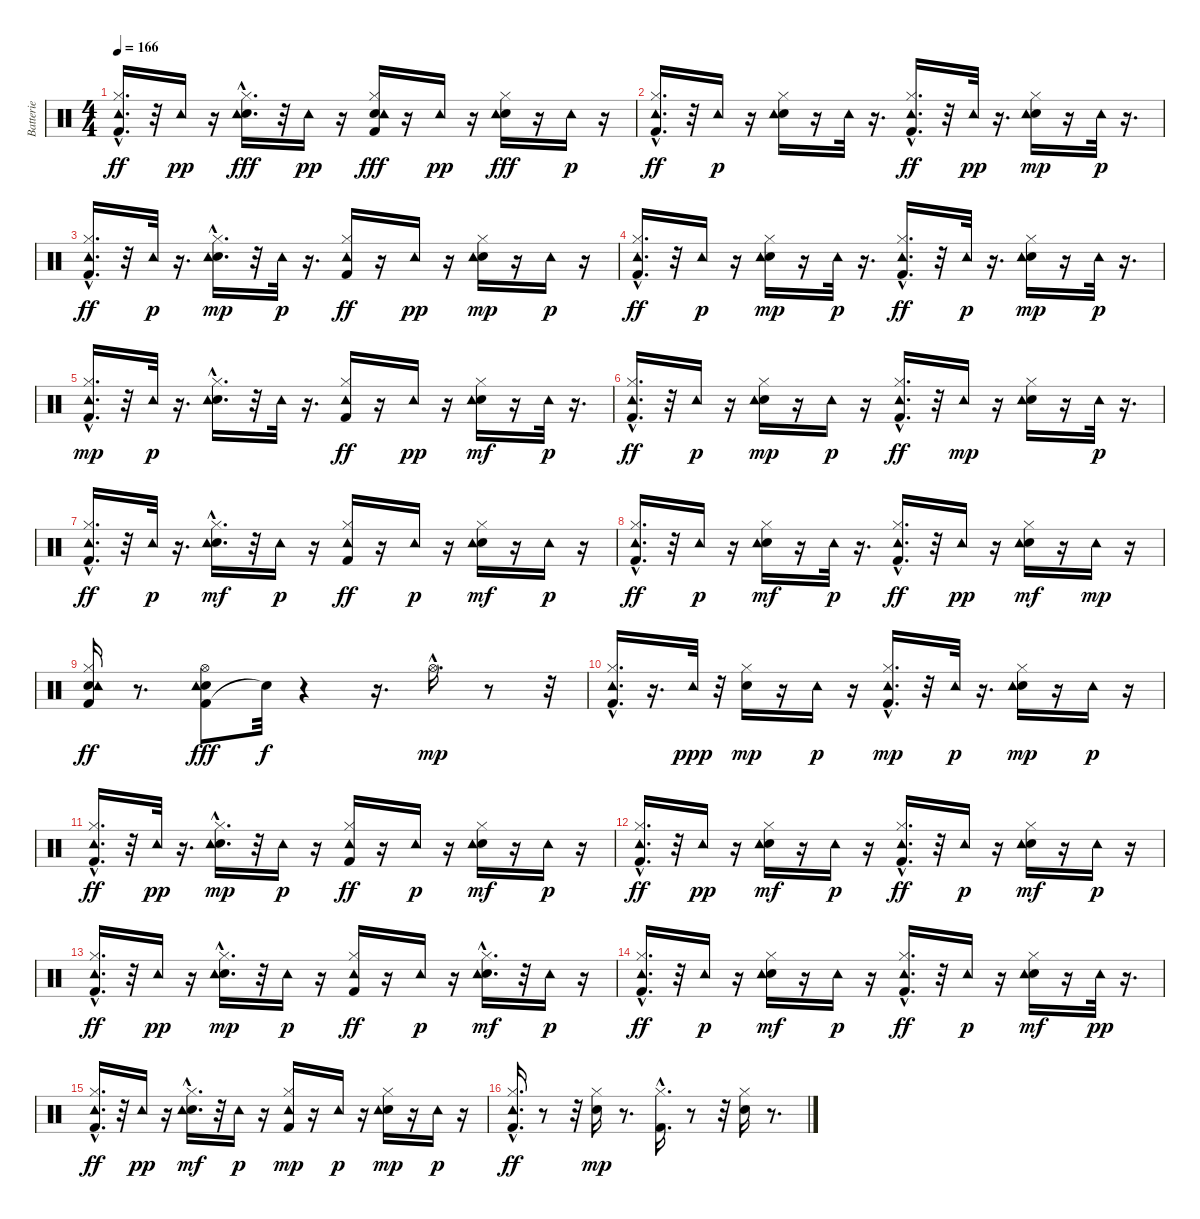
\track ("Batterie" "Batterie") {instrument percussion}
\staff {score}
\articulation defaults
\ts (4 4)
\tempo 166
\clef neutral
\ks c
("Kick (hit) 2"{hac} "Hi-Hat (closed)" "Tambourine (hit)").16{d dy ff} r.32 "Tambourine (hit)".16{dy pp} r.16 ("Electric Snare (hit)" "Hi-Hat (closed)"{hac} "Tambourine (hit)").16{d dy fff} r.32 "Tambourine (hit)".16{dy pp} r.16 ("Kick (hit) 2" "Electric Snare (hit)" "Hi-Hat (closed)" "Tambourine (hit)").16{dy fff} r.16 "Tambourine (hit)".16{dy pp} r.16 ("Electric Snare (hit)" "Hi-Hat (closed)" "Tambourine (hit)").16{dy fff} r.16 "Tambourine (hit)".16{dy p} r.16 |
("Kick (hit) 2"{hac} "Hi-Hat (closed)"{hac} "Tambourine (hit)").16{d dy ff} r.32 "Tambourine (hit)".16{dy p} r.16 ("Electric Snare (hit)" "Hi-Hat (closed)" "Tambourine (hit)").16 r.16 "Tambourine (hit)".32 r.16{d} ("Kick (hit) 2"{hac} "Hi-Hat (closed)" "Tambourine (hit)").16{d dy ff} r.32 "Tambourine (hit)".32{dy pp} r.16{d} ("Electric Snare (hit)" "Hi-Hat (closed)" "Tambourine (hit)").16{dy mp} r.16 "Tambourine (hit)".32{dy p} r.16{d} |
("Kick (hit) 2"{hac} "Hi-Hat (closed)" "Tambourine (hit)").16{d dy ff} r.32 "Tambourine (hit)".32{dy p} r.16{d} ("Electric Snare (hit)" "Hi-Hat (closed)"{hac} "Tambourine (hit)").16{d dy mp} r.32 "Tambourine (hit)".32{dy p} r.16{d} ("Kick (hit) 2" "Hi-Hat (closed)" "Tambourine (hit)").16{dy ff} r.16 "Tambourine (hit)".16{dy pp} r.16 ("Electric Snare (hit)" "Hi-Hat (closed)" "Tambourine (hit)").16{dy mp} r.16 "Tambourine (hit)".16{dy p} r.16 |
("Kick (hit) 2"{hac} "Hi-Hat (closed)"{hac} "Tambourine (hit)").16{d dy ff} r.32 "Tambourine (hit)".16{dy p} r.16 ("Electric Snare (hit)" "Hi-Hat (closed)" "Tambourine (hit)").16{dy mp} r.16 "Tambourine (hit)".32{dy p} r.16{d} ("Kick (hit) 2"{hac} "Hi-Hat (closed)" "Tambourine (hit)").16{d dy ff} r.32 "Tambourine (hit)".32{dy p} r.16{d} ("Electric Snare (hit)" "Hi-Hat (closed)" "Tambourine (hit)").16{dy mp} r.16 "Tambourine (hit)".32{dy p} r.16{d} |
("Kick (hit) 2"{hac} "Hi-Hat (closed)" "Tambourine (hit)").16{d dy mp} r.32 "Tambourine (hit)".32{dy p} r.16{d} ("Electric Snare (hit)" "Hi-Hat (closed)"{hac} "Tambourine (hit)").16{d} r.32 "Tambourine (hit)".32 r.16{d} ("Kick (hit) 2" "Hi-Hat (closed)" "Tambourine (hit)").16{dy ff} r.16 "Tambourine (hit)".16{dy pp} r.16 ("Electric Snare (hit)" "Hi-Hat (closed)" "Tambourine (hit)").16{dy mf} r.16 "Tambourine (hit)".32{dy p} r.16{d} |
("Kick (hit) 2"{hac} "Hi-Hat (closed)"{hac} "Tambourine (hit)").16{d dy ff} r.32 "Tambourine (hit)".16{dy p} r.16 ("Electric Snare (hit)" "Hi-Hat (closed)" "Tambourine (hit)").16{dy mp} r.16 "Tambourine (hit)".16{dy p} r.16 ("Kick (hit) 2"{hac} "Hi-Hat (closed)" "Tambourine (hit)").16{d dy ff} r.32 "Tambourine (hit)".16{dy mp} r.16 ("Electric Snare (hit)" "Hi-Hat (closed)" "Tambourine (hit)").16 r.16 "Tambourine (hit)".32{dy p} r.16{d} |
("Kick (hit) 2"{hac} "Hi-Hat (closed)" "Tambourine (hit)").16{d dy ff} r.32 "Tambourine (hit)".32{dy p} r.16{d} ("Electric Snare (hit)" "Hi-Hat (closed)"{hac} "Tambourine (hit)").16{d dy mf} r.32 "Tambourine (hit)".16{dy p} r.16 ("Kick (hit) 2" "Hi-Hat (closed)" "Tambourine (hit)").16{dy ff} r.16 "Tambourine (hit)".16{dy p} r.16 ("Electric Snare (hit)" "Hi-Hat (closed)" "Tambourine (hit)").16{dy mf} r.16 "Tambourine (hit)".16{dy p} r.16 |
("Kick (hit) 2"{hac} "Hi-Hat (closed)"{hac} "Tambourine (hit)").16{d dy ff} r.32 "Tambourine (hit)".16{dy p} r.16 ("Electric Snare (hit)" "Hi-Hat (closed)" "Tambourine (hit)").16{dy mf} r.16 "Tambourine (hit)".32{dy p} r.16{d} ("Kick (hit) 2"{hac} "Hi-Hat (closed)" "Tambourine (hit)").16{d dy ff} r.32 "Tambourine (hit)".16{dy pp} r.16 ("Electric Snare (hit)" "Hi-Hat (closed)" "Tambourine (hit)").16{dy mf} r.16 "Tambourine (hit)".16{dy mp} r.16 |
("Kick (hit) 2" "Electric Snare (hit)" "Hi-Hat (closed)" "Tambourine (hit)").16{dy ff} r.8{d} ("Kick (hit) 2" "Electric Snare (hit)" "Hi-Hat (open)" "Tambourine (hit)").8{dy fff} "Snare (hit)"{t}.32{dy f} r.4 r.16{d} "Hi-Hat (open)"{hac}.16{d dy mp} r.8 r.32 |
("Kick (hit) 2"{hac} "Hi-Hat (closed)"{hac} "Tambourine (hit)").16{d} r.16{d} "Tambourine (hit)".32{dy ppp} r.32 ("Electric Snare (hit)" "Hi-Hat (closed)").16{dy mp} r.16 "Tambourine (hit)".16{dy p} r.16 ("Kick (hit) 2"{hac} "Hi-Hat (closed)" "Tambourine (hit)").16{d dy mp} r.32 "Tambourine (hit)".32{dy p} r.16{d} ("Electric Snare (hit)" "Hi-Hat (closed)" "Tambourine (hit)").16{dy mp} r.16 "Tambourine (hit)".16{dy p} r.16 |
("Kick (hit) 2"{hac} "Hi-Hat (closed)" "Tambourine (hit)").16{d dy ff} r.32 "Tambourine (hit)".32{dy pp} r.16{d} ("Electric Snare (hit)" "Hi-Hat (closed)"{hac} "Tambourine (hit)").16{d dy mp} r.32 "Tambourine (hit)".16{dy p} r.16 ("Kick (hit) 2" "Hi-Hat (closed)" "Tambourine (hit)").16{dy ff} r.16 "Tambourine (hit)".16{dy p} r.16 ("Electric Snare (hit)" "Hi-Hat (closed)" "Tambourine (hit)").16{dy mf} r.16 "Tambourine (hit)".16{dy p} r.16 |
("Kick (hit) 2"{hac} "Hi-Hat (closed)"{hac} "Tambourine (hit)").16{d dy ff} r.32 "Tambourine (hit)".16{dy pp} r.16 ("Electric Snare (hit)" "Hi-Hat (closed)" "Tambourine (hit)").16{dy mf} r.16 "Tambourine (hit)".16{dy p} r.16 ("Kick (hit) 2"{hac} "Hi-Hat (closed)" "Tambourine (hit)").16{d dy ff} r.32 "Tambourine (hit)".16{dy p} r.16 ("Electric Snare (hit)" "Hi-Hat (closed)" "Tambourine (hit)").16{dy mf} r.16 "Tambourine (hit)".16{dy p} r.16 |
("Kick (hit) 2"{hac} "Hi-Hat (closed)" "Tambourine (hit)").16{d dy ff} r.32 "Tambourine (hit)".16{dy pp} r.16 ("Electric Snare (hit)" "Hi-Hat (closed)"{hac} "Tambourine (hit)").16{d dy mp} r.32 "Tambourine (hit)".16{dy p} r.16 ("Kick (hit) 2" "Hi-Hat (closed)" "Tambourine (hit)").16{dy ff} r.16 "Tambourine (hit)".16{dy p} r.16 ("Electric Snare (hit)"{hac} "Hi-Hat (closed)" "Tambourine (hit)").16{d dy mf} r.32 "Tambourine (hit)".16{dy p} r.16 |
("Kick (hit) 2"{hac} "Hi-Hat (closed)"{hac} "Tambourine (hit)").16{d dy ff} r.32 "Tambourine (hit)".16{dy p} r.16 ("Electric Snare (hit)" "Hi-Hat (closed)" "Tambourine (hit)").16{dy mf} r.16 "Tambourine (hit)".16{dy p} r.16 ("Kick (hit) 2"{hac} "Hi-Hat (closed)" "Tambourine (hit)").16{d dy ff} r.32 "Tambourine (hit)".16{dy p} r.16 ("Electric Snare (hit)" "Hi-Hat (closed)" "Tambourine (hit)").16{dy mf} r.16 "Tambourine (hit)".32{dy pp} r.16{d} |
("Kick (hit) 2"{hac} "Hi-Hat (closed)" "Tambourine (hit)").16{d dy ff} r.32 "Tambourine (hit)".16{dy pp} r.16 ("Electric Snare (hit)" "Hi-Hat (closed)"{hac} "Tambourine (hit)").16{d dy mf} r.32 "Tambourine (hit)".16{dy p} r.16 ("Kick (hit) 2" "Hi-Hat (closed)" "Tambourine (hit)").16{dy mp} r.16 "Tambourine (hit)".16{dy p} r.16 ("Electric Snare (hit)" "Hi-Hat (closed)" "Tambourine (hit)").16{dy mp} r.16 "Tambourine (hit)".16{dy p} r.16 |
("Kick (hit) 2"{hac} "Hi-Hat (closed)"{hac} "Tambourine (hit)").16{d dy ff} r.8 r.32 ("Electric Snare (hit)" "Hi-Hat (closed)").16{dy mp} r.8{d} ("Kick (hit) 2"{hac} "Hi-Hat (closed)").16{d} r.8 r.32 ("Electric Snare (hit)" "Hi-Hat (closed)").16 r.8{d}
